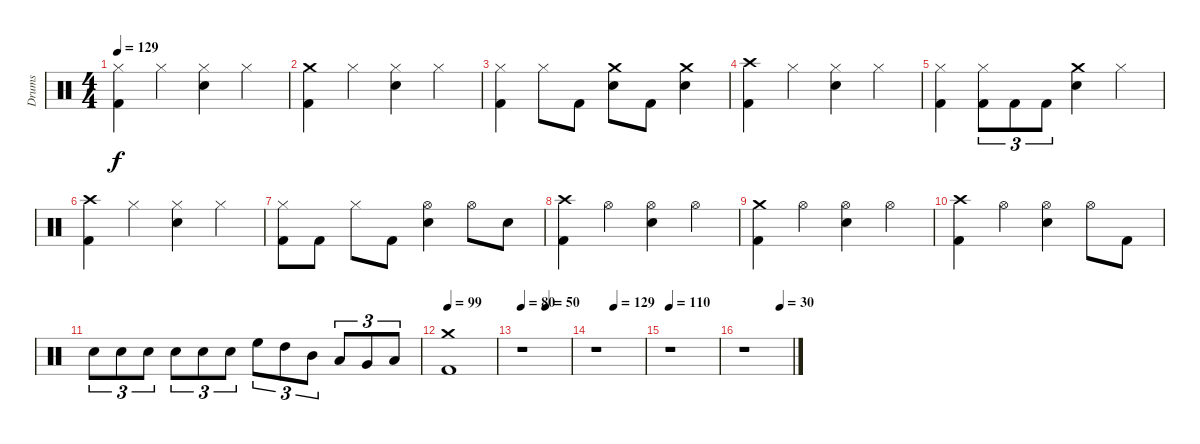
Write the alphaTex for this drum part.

\track ("Drums" "Drums") {instrument percussion}
\staff {score}
\articulation defaults
\ts (4 4)
\tempo 129
\clef neutral
\ks c
("Kick (hit) 2" "Hi-Hat (closed)").4{dy f} "Hi-Hat (closed)".4 ("Electric Snare (hit)" "Hi-Hat (closed)").4 "Hi-Hat (closed)".4 |
("Kick (hit) 2" "Crash medium (hit)").4 "Hi-Hat (closed)".4 ("Electric Snare (hit)" "Hi-Hat (closed)").4 "Hi-Hat (closed)".4 |
("Kick (hit) 2" "Hi-Hat (closed)").4 "Hi-Hat (closed)".8 "Kick (hit) 2".8 ("Electric Snare (hit)" "Crash medium (hit)").8 "Kick (hit) 2".8 ("Electric Snare (hit)" "Crash medium (hit)").4 |
("Kick (hit) 2" "Crash high (hit)").4 "Hi-Hat (closed)".4 ("Electric Snare (hit)" "Hi-Hat (closed)").4 "Hi-Hat (closed)".4 |
("Kick (hit) 2" "Hi-Hat (closed)").4 ("Kick (hit) 2" "Hi-Hat (closed)").8{tu (3 2)} "Kick (hit) 2".8{tu (3 2)} "Kick (hit) 2".8{tu (3 2)} ("Electric Snare (hit)" "Crash medium (hit)").4 "Hi-Hat (closed)".4 |
("Kick (hit) 2" "Crash high (hit)").4 "Hi-Hat (closed)".4 ("Electric Snare (hit)" "Hi-Hat (closed)").4 "Hi-Hat (closed)".4 |
("Kick (hit) 2" "Hi-Hat (closed)").8 "Kick (hit) 2".8 "Hi-Hat (closed)".8 "Kick (hit) 2".8 ("Electric Snare (hit)" "Hi-Hat (open)").4 "Hi-Hat (open)".8 "Electric Snare (hit)".8 |
("Kick (hit) 2" "Crash high (hit)").4 "Hi-Hat (open)".4 ("Electric Snare (hit)" "Hi-Hat (open)").4 "Hi-Hat (open)".4 |
("Kick (hit) 2" "Crash medium (hit)").4 "Hi-Hat (open)".4 ("Electric Snare (hit)" "Hi-Hat (open)").4 "Hi-Hat (open)".4 |
("Kick (hit) 2" "Crash high (hit)").4 "Hi-Hat (open)".4 ("Electric Snare (hit)" "Hi-Hat (open)").4 "Hi-Hat (open)".8 "Kick (hit) 2".8 |
"Electric Snare (hit)".8{tu (3 2)} "Electric Snare (hit)".8{tu (3 2)} "Electric Snare (hit)".8{tu (3 2)} "Electric Snare (hit)".8{tu (3 2)} "Electric Snare (hit)".8{tu (3 2)} "Electric Snare (hit)".8{tu (3 2)} "High Floor Tom (hit)".8{tu (3 2)} "High Tom (hit)".8{tu (3 2)} "Mid Tom (hit)".8{tu (3 2)} "Low Tom (hit)".8{tu (3 2)} "Very Low Tom (hit)".8{tu (3 2)} "Low Floor Tom (hit)".8{tu (3 2)} |
\tempo 99
("Kick (hit) 2" "Crash medium (hit)").1 |
\tempo 80
\tempo (50 0.5)
r.1 |
\tempo (129 0.375)
r.1 |
\tempo 110
r.1 |
\tempo (30 0.75)
r.1
